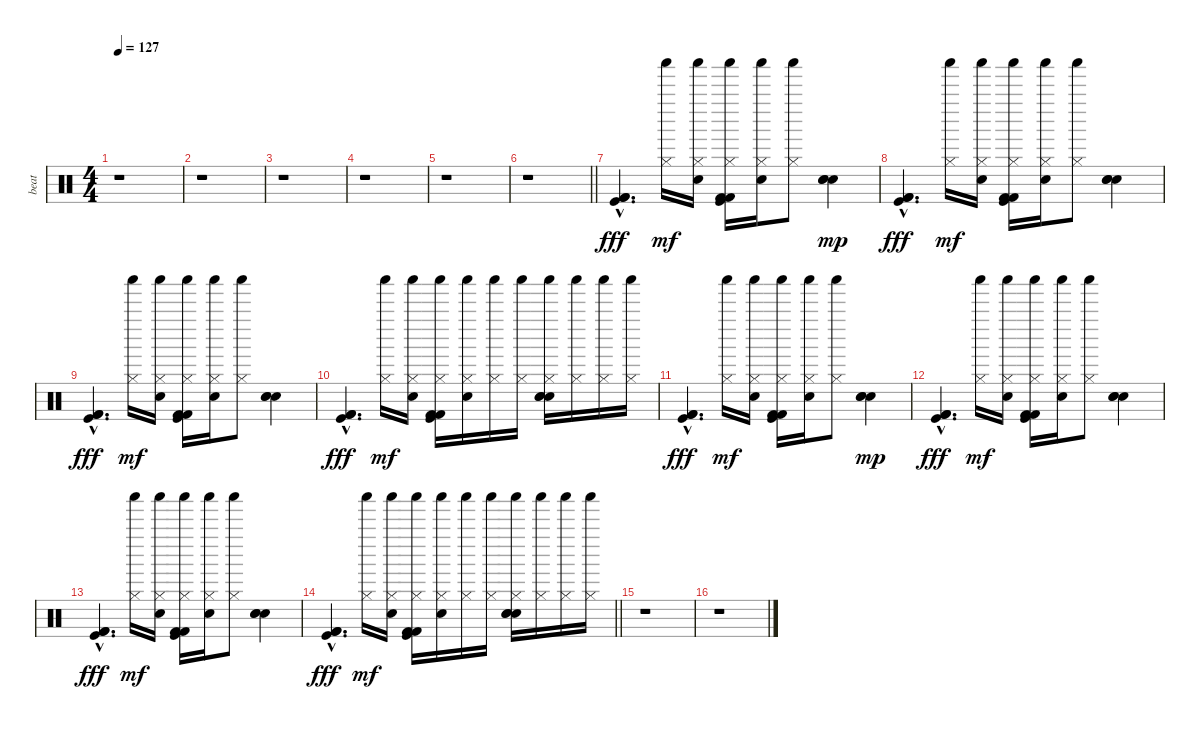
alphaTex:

\track ("beat" "beat") {instrument percussion}
\staff {score}
\articulation defaults
\ts (4 4)
\tempo 127
\clef neutral
\ks c
r.1{dy fff} |
r.1 |
r.1 |
r.1 |
r.1 |
\barLineRight lightlight
r.1 |
("Kick (hit)"{hac} "Kick (hit) 2"{hac} "Kick (hit) 2"{hac}).4{d} ("Shaker (hit)" "Hi-Hat (closed)").16{dy mf} ("Electric Snare (hit)" "Shaker (hit)" "Hi-Hat (closed)").16 ("Kick (hit)" "Kick (hit) 2" "Kick (hit) 2" "Shaker (hit)" "Hi-Hat (closed)").16 ("Electric Snare (hit)" "Shaker (hit)" "Hi-Hat (closed)").16 ("Shaker (hit)" "Hi-Hat (closed)").8 ("Snare (hit) 2" "Electric Snare (hit)" "Electric Snare (hit)").4{dy mp} |
("Kick (hit)"{hac} "Kick (hit) 2"{hac} "Kick (hit) 2"{hac}).4{d dy fff} ("Shaker (hit)" "Hi-Hat (closed)").16{dy mf} ("Electric Snare (hit)" "Shaker (hit)" "Hi-Hat (closed)").16 ("Kick (hit)" "Kick (hit) 2" "Kick (hit) 2" "Shaker (hit)" "Hi-Hat (closed)").16 ("Electric Snare (hit)" "Shaker (hit)" "Hi-Hat (closed)").16 ("Shaker (hit)" "Hi-Hat (closed)").8 ("Snare (hit) 2" "Electric Snare (hit)" "Electric Snare (hit)").4 |
("Kick (hit)"{hac} "Kick (hit) 2"{hac} "Kick (hit) 2"{hac}).4{d dy fff} ("Shaker (hit)" "Hi-Hat (closed)").16{dy mf} ("Electric Snare (hit)" "Shaker (hit)" "Hi-Hat (closed)").16 ("Kick (hit)" "Kick (hit) 2" "Kick (hit) 2" "Shaker (hit)" "Hi-Hat (closed)").16 ("Electric Snare (hit)" "Shaker (hit)" "Hi-Hat (closed)").16 ("Shaker (hit)" "Hi-Hat (closed)").8 ("Snare (hit) 2" "Electric Snare (hit)" "Electric Snare (hit)").4 |
("Kick (hit)"{hac} "Kick (hit) 2"{hac} "Kick (hit) 2"{hac}).4{d dy fff} ("Shaker (hit)" "Hi-Hat (closed)").16{dy mf} ("Electric Snare (hit)" "Shaker (hit)" "Hi-Hat (closed)").16 ("Kick (hit)" "Kick (hit) 2" "Kick (hit) 2" "Shaker (hit)" "Hi-Hat (closed)").16 ("Electric Snare (hit)" "Shaker (hit)" "Hi-Hat (closed)").16 ("Shaker (hit)" "Hi-Hat (closed)").16 ("Shaker (hit)" "Hi-Hat (closed)").16 ("Snare (hit) 2" "Electric Snare (hit)" "Electric Snare (hit)" "Shaker (hit)" "Hi-Hat (closed)").16 ("Shaker (hit)" "Hi-Hat (closed)").16 ("Shaker (hit)" "Hi-Hat (closed)").16 ("Shaker (hit)" "Hi-Hat (closed)").16 |
("Kick (hit)"{hac} "Kick (hit) 2"{hac} "Kick (hit) 2"{hac}).4{d dy fff} ("Shaker (hit)" "Hi-Hat (closed)").16{dy mf} ("Electric Snare (hit)" "Shaker (hit)" "Hi-Hat (closed)").16 ("Kick (hit)" "Kick (hit) 2" "Kick (hit) 2" "Shaker (hit)" "Hi-Hat (closed)").16 ("Electric Snare (hit)" "Shaker (hit)" "Hi-Hat (closed)").16 ("Shaker (hit)" "Hi-Hat (closed)").8 ("Snare (hit) 2" "Electric Snare (hit)" "Electric Snare (hit)").4{dy mp} |
("Kick (hit)"{hac} "Kick (hit) 2"{hac} "Kick (hit) 2"{hac}).4{d dy fff} ("Shaker (hit)" "Hi-Hat (closed)").16{dy mf} ("Electric Snare (hit)" "Shaker (hit)" "Hi-Hat (closed)").16 ("Kick (hit)" "Kick (hit) 2" "Kick (hit) 2" "Shaker (hit)" "Hi-Hat (closed)").16 ("Electric Snare (hit)" "Shaker (hit)" "Hi-Hat (closed)").16 ("Shaker (hit)" "Hi-Hat (closed)").8 ("Snare (hit) 2" "Electric Snare (hit)" "Electric Snare (hit)").4 |
("Kick (hit)"{hac} "Kick (hit) 2"{hac} "Kick (hit) 2"{hac}).4{d dy fff} ("Shaker (hit)" "Hi-Hat (closed)").16{dy mf} ("Electric Snare (hit)" "Shaker (hit)" "Hi-Hat (closed)").16 ("Kick (hit)" "Kick (hit) 2" "Kick (hit) 2" "Shaker (hit)" "Hi-Hat (closed)").16 ("Electric Snare (hit)" "Shaker (hit)" "Hi-Hat (closed)").16 ("Shaker (hit)" "Hi-Hat (closed)").8 ("Snare (hit) 2" "Electric Snare (hit)" "Electric Snare (hit)").4 |
\barLineRight lightlight
("Kick (hit)"{hac} "Kick (hit) 2"{hac} "Kick (hit) 2"{hac}).4{d dy fff} ("Shaker (hit)" "Hi-Hat (closed)").16{dy mf} ("Electric Snare (hit)" "Shaker (hit)" "Hi-Hat (closed)").16 ("Kick (hit)" "Kick (hit) 2" "Kick (hit) 2" "Shaker (hit)" "Hi-Hat (closed)").16 ("Electric Snare (hit)" "Shaker (hit)" "Hi-Hat (closed)").16 ("Shaker (hit)" "Hi-Hat (closed)").16 ("Shaker (hit)" "Hi-Hat (closed)").16 ("Snare (hit) 2" "Electric Snare (hit)" "Electric Snare (hit)" "Shaker (hit)" "Hi-Hat (closed)").16 ("Shaker (hit)" "Hi-Hat (closed)").16 ("Shaker (hit)" "Hi-Hat (closed)").16 ("Shaker (hit)" "Hi-Hat (closed)").16 |
r.1 |
r.1
